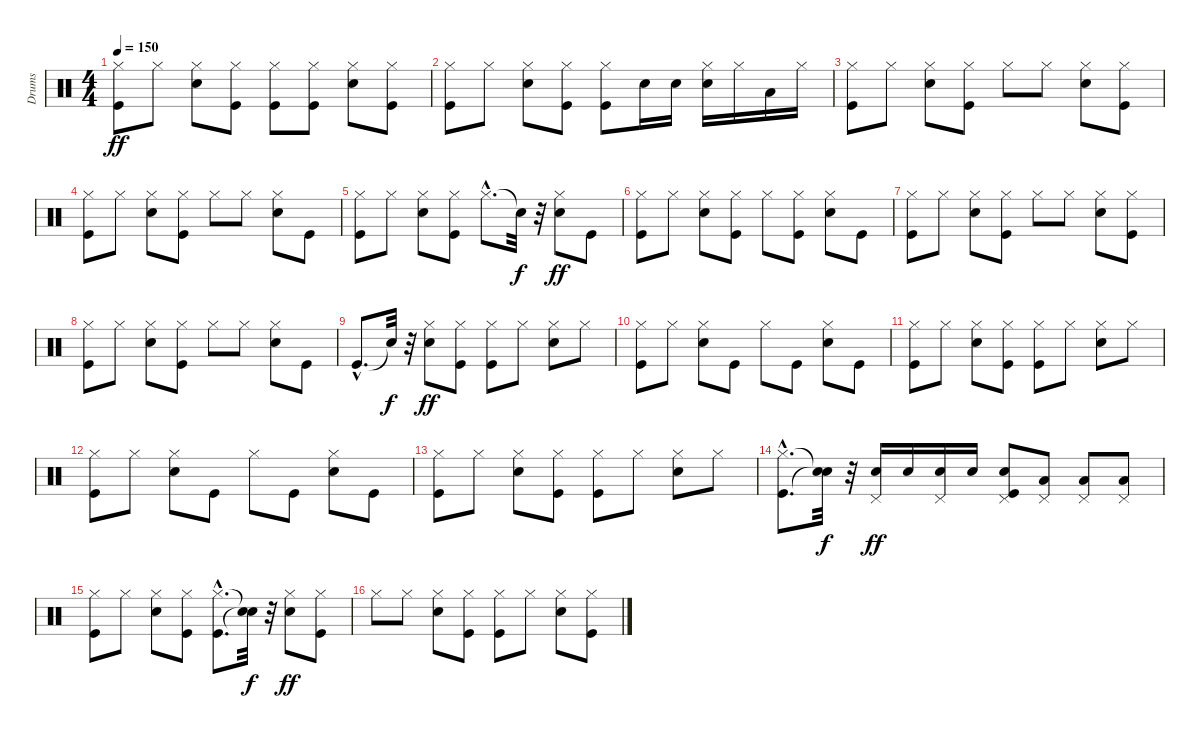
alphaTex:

\track ("Drums" "Drums") {instrument percussion}
\staff {score}
\articulation defaults
\ts (4 4)
\tempo 150
\clef neutral
\ks c
("Kick (hit)" "Hi-Hat (closed)").8{dy ff} "Hi-Hat (closed)".8 ("Snare (hit) 2" "Hi-Hat (closed)").8 ("Kick (hit)" "Hi-Hat (closed)").8 ("Kick (hit)" "Hi-Hat (closed)").8 ("Kick (hit)" "Hi-Hat (closed)").8 ("Snare (hit) 2" "Hi-Hat (closed)").8 ("Kick (hit)" "Hi-Hat (closed)").8 |
("Kick (hit)" "Hi-Hat (closed)").8 "Hi-Hat (closed)".8 ("Snare (hit) 2" "Hi-Hat (closed)").8 ("Kick (hit)" "Hi-Hat (closed)").8 ("Kick (hit)" "Hi-Hat (closed)").8 "Snare (hit) 2".16 "Snare (hit) 2".16 ("Snare (hit) 2" "Hi-Hat (closed)").16 "Hi-Hat (closed)".16 "Low Floor Tom (hit)".16 "Hi-Hat (closed)".16 |
("Kick (hit)" "Hi-Hat (closed)").8 "Hi-Hat (closed)".8 ("Snare (hit) 2" "Hi-Hat (closed)").8 ("Kick (hit)" "Hi-Hat (closed)").8 "Hi-Hat (closed)".8 "Hi-Hat (closed)".8 ("Snare (hit) 2" "Hi-Hat (closed)").8 ("Kick (hit)" "Hi-Hat (closed)").8 |
("Kick (hit)" "Hi-Hat (closed)").8 "Hi-Hat (closed)".8 ("Snare (hit) 2" "Hi-Hat (closed)").8 ("Kick (hit)" "Hi-Hat (closed)").8 "Hi-Hat (closed)".8 "Hi-Hat (closed)".8 ("Snare (hit) 2" "Hi-Hat (closed)").8 "Kick (hit)".8 |
("Kick (hit)" "Hi-Hat (closed)").8 "Hi-Hat (closed)".8 ("Snare (hit) 2" "Hi-Hat (closed)").8 ("Kick (hit)" "Hi-Hat (closed)").8 "Hi-Hat (closed)"{hac}.8{d} "Snare (hit)"{t}.32{dy f} r.32 ("Snare (hit) 2" "Hi-Hat (closed)").8{dy ff} "Kick (hit)".8 |
("Kick (hit)" "Hi-Hat (closed)").8 "Hi-Hat (closed)".8 ("Snare (hit) 2" "Hi-Hat (closed)").8 ("Kick (hit)" "Hi-Hat (closed)").8 "Hi-Hat (closed)".8 ("Kick (hit)" "Hi-Hat (closed)").8 ("Snare (hit) 2" "Hi-Hat (closed)").8 "Kick (hit)".8 |
("Kick (hit)" "Hi-Hat (closed)").8 "Hi-Hat (closed)".8 ("Snare (hit) 2" "Hi-Hat (closed)").8 ("Kick (hit)" "Hi-Hat (closed)").8 "Hi-Hat (closed)".8 "Hi-Hat (closed)".8 ("Snare (hit) 2" "Hi-Hat (closed)").8 ("Kick (hit)" "Hi-Hat (closed)").8 |
("Kick (hit)" "Hi-Hat (closed)").8 "Hi-Hat (closed)".8 ("Snare (hit) 2" "Hi-Hat (closed)").8 ("Kick (hit)" "Hi-Hat (closed)").8 "Hi-Hat (closed)".8 "Hi-Hat (closed)".8 ("Snare (hit) 2" "Hi-Hat (closed)").8 "Kick (hit)".8 |
"Kick (hit)"{hac}.8{d} "Snare (hit)"{t}.32{dy f} r.32 ("Snare (hit) 2" "Hi-Hat (closed)").8{dy ff} ("Kick (hit)" "Hi-Hat (closed)").8 ("Kick (hit)" "Hi-Hat (closed)").8 "Hi-Hat (closed)".8 ("Snare (hit) 2" "Hi-Hat (closed)").8 "Hi-Hat (closed)".8 |
("Kick (hit)" "Hi-Hat (closed)").8 "Hi-Hat (closed)".8 ("Snare (hit) 2" "Hi-Hat (closed)").8 "Kick (hit)".8 "Hi-Hat (closed)".8 "Kick (hit)".8 ("Snare (hit) 2" "Hi-Hat (closed)").8 "Kick (hit)".8 |
("Kick (hit)" "Hi-Hat (closed)").8 "Hi-Hat (closed)".8 ("Snare (hit) 2" "Hi-Hat (closed)").8 ("Kick (hit)" "Hi-Hat (closed)").8 ("Kick (hit)" "Hi-Hat (closed)").8 "Hi-Hat (closed)".8 ("Snare (hit) 2" "Hi-Hat (closed)").8 "Hi-Hat (closed)".8 |
("Kick (hit)" "Hi-Hat (closed)").8 "Hi-Hat (closed)".8 ("Snare (hit) 2" "Hi-Hat (closed)").8 "Kick (hit)".8 "Hi-Hat (closed)".8 "Kick (hit)".8 ("Snare (hit) 2" "Hi-Hat (closed)").8 "Kick (hit)".8 |
("Kick (hit)" "Hi-Hat (closed)").8 "Hi-Hat (closed)".8 ("Snare (hit) 2" "Hi-Hat (closed)").8 ("Kick (hit)" "Hi-Hat (closed)").8 ("Kick (hit)" "Hi-Hat (closed)").8 "Hi-Hat (closed)".8 ("Snare (hit) 2" "Hi-Hat (closed)").8 "Hi-Hat (closed)".8 |
("Kick (hit)"{hac} "Hi-Hat (closed)"{hac}).8{d} ("Snare (hit)"{t} "Snare (hit)"{t}).32{dy f} r.32 ("Snare (hit) 2" "Pedal Hi-Hat (hit)").16{dy ff} "Snare (hit) 2".16 ("Snare (hit) 2" "Pedal Hi-Hat (hit)").16 "Snare (hit) 2".16 ("Kick (hit)" "Snare (hit) 2" "Pedal Hi-Hat (hit)").8 ("Pedal Hi-Hat (hit)" "Low Tom (hit)").8 ("Low Floor Tom (hit)" "Pedal Hi-Hat (hit)").8 ("Low Floor Tom (hit)" "Pedal Hi-Hat (hit)").8 |
("Kick (hit)" "Hi-Hat (closed)").8 "Hi-Hat (closed)".8 ("Snare (hit) 2" "Hi-Hat (closed)").8 ("Kick (hit)" "Hi-Hat (closed)").8 ("Kick (hit)"{hac} "Hi-Hat (closed)"{hac}).8{d} ("Snare (hit)"{t} "Snare (hit)"{t}).32{dy f} r.32 ("Snare (hit) 2" "Hi-Hat (closed)").8{dy ff} ("Kick (hit)" "Hi-Hat (closed)").8 |
"Hi-Hat (closed)".8 "Hi-Hat (closed)".8 ("Snare (hit) 2" "Hi-Hat (closed)").8 ("Kick (hit)" "Hi-Hat (closed)").8 ("Kick (hit)" "Hi-Hat (closed)").8 "Hi-Hat (closed)".8 ("Snare (hit) 2" "Hi-Hat (closed)").8 ("Kick (hit)" "Hi-Hat (closed)").8
